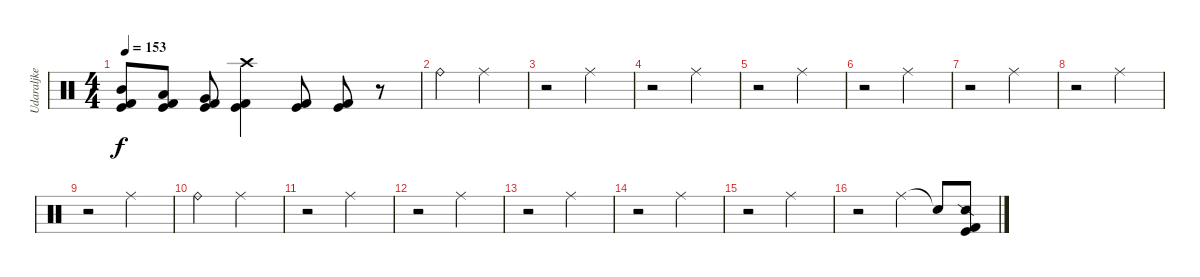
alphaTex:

\track ("Udaraljke" "Udaraljke") {instrument percussion}
\staff {score}
\articulation defaults
\ts (4 4)
\tempo 153
\clef neutral
\ks c
("Mid Tom (hit)" "Kick (hit) 2" "Kick (hit)").8{dy f} ("Low Tom (hit)" "Kick (hit) 2" "Kick (hit)").8 ("Very Low Tom (hit)" "Kick (hit) 2" "Kick (hit)").8 ("Crash high (hit)" "Kick (hit) 2" "Kick (hit)").4 ("Kick (hit) 2" "Kick (hit)").8 ("Kick (hit) 2" "Kick (hit)").8 r.8 |
"Ride (bell)".2 "Ride (middle)".2 |
r.2 "Ride (middle)".2 |
r.2 "Ride (middle)".2 |
r.2 "Ride (middle)".2 |
r.2 "Ride (middle)".2 |
r.2 "Ride (middle)".2 |
r.2 "Ride (middle)".2 |
r.2 "Ride (middle)".2 |
"Ride (bell)".2 "Ride (middle)".2 |
r.2 "Ride (middle)".2 |
r.2 "Ride (middle)".2 |
r.2 "Ride (middle)".2 |
r.2 "Ride (middle)".2 |
r.2 "Ride (middle)".2 |
r.2 "Ride (middle)".4 "Snare (hit)"{t}.8 ("Kick (hit) 2" "Kick (hit)" "Snare (side stick) 2").8
